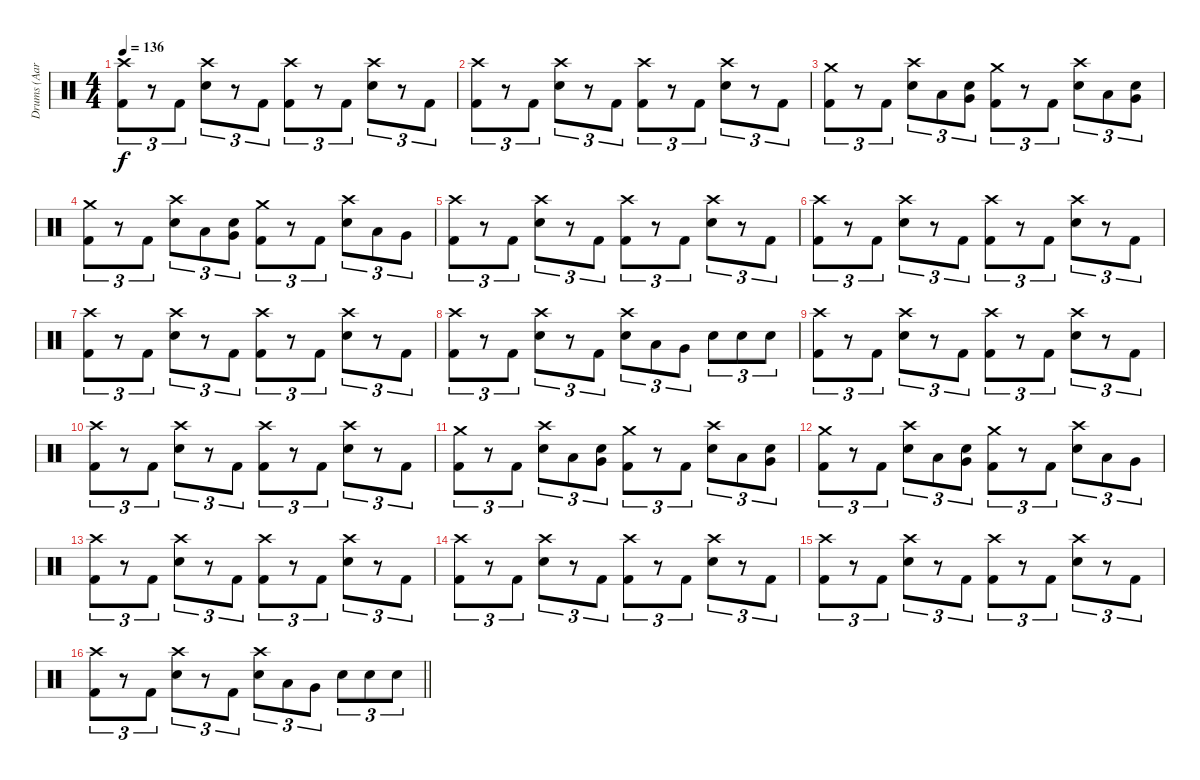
\track ("Drums (Aaron Solowoniuk)" "Drums (Aar") {instrument percussion}
\staff {score}
\articulation defaults
\ts (4 4)
\tempo 136
\clef neutral
\ks c
("Kick (hit) 2" "Crash high (hit)").8{tu (3 2) dy f} r.8{tu (3 2)} "Kick (hit) 2".8{tu (3 2)} ("Electric Snare (hit)" "Crash high (hit)").8{tu (3 2)} r.8{tu (3 2)} "Kick (hit) 2".8{tu (3 2)} ("Kick (hit) 2" "Crash high (hit)").8{tu (3 2)} r.8{tu (3 2)} "Kick (hit) 2".8{tu (3 2)} ("Electric Snare (hit)" "Crash high (hit)").8{tu (3 2)} r.8{tu (3 2)} "Kick (hit) 2".8{tu (3 2)} |
("Kick (hit) 2" "Crash high (hit)").8{tu (3 2)} r.8{tu (3 2)} "Kick (hit) 2".8{tu (3 2)} ("Electric Snare (hit)" "Crash high (hit)").8{tu (3 2)} r.8{tu (3 2)} "Kick (hit) 2".8{tu (3 2)} ("Kick (hit) 2" "Crash high (hit)").8{tu (3 2)} r.8{tu (3 2)} "Kick (hit) 2".8{tu (3 2)} ("Electric Snare (hit)" "Crash high (hit)").8{tu (3 2)} r.8{tu (3 2)} "Kick (hit) 2".8{tu (3 2)} |
("Crash medium (hit)" "Kick (hit) 2").8{tu (3 2)} r.8{tu (3 2)} "Kick (hit) 2".8{tu (3 2)} ("Crash high (hit)" "Electric Snare (hit)").8{tu (3 2)} "Low Tom (hit)".8{tu (3 2)} ("Electric Snare (hit)" "Very Low Tom (hit)").8{tu (3 2)} ("Crash medium (hit)" "Kick (hit) 2").8{tu (3 2)} r.8{tu (3 2)} "Kick (hit) 2".8{tu (3 2)} ("Crash high (hit)" "Electric Snare (hit)").8{tu (3 2)} "Low Tom (hit)".8{tu (3 2)} ("Electric Snare (hit)" "Very Low Tom (hit)").8{tu (3 2)} |
("Crash medium (hit)" "Kick (hit) 2").8{tu (3 2)} r.8{tu (3 2)} "Kick (hit) 2".8{tu (3 2)} ("Crash high (hit)" "Electric Snare (hit)").8{tu (3 2)} "Low Tom (hit)".8{tu (3 2)} ("Electric Snare (hit)" "Very Low Tom (hit)").8{tu (3 2)} ("Crash medium (hit)" "Kick (hit) 2").8{tu (3 2)} r.8{tu (3 2)} "Kick (hit) 2".8{tu (3 2)} ("Crash high (hit)" "Electric Snare (hit)").8{tu (3 2)} "Low Tom (hit)".8{tu (3 2)} "Very Low Tom (hit)".8{tu (3 2)} |
("Crash high (hit)" "Kick (hit) 2").8{tu (3 2)} r.8{tu (3 2)} "Kick (hit) 2".8{tu (3 2)} ("Crash high (hit)" "Electric Snare (hit)").8{tu (3 2)} r.8{tu (3 2)} "Kick (hit) 2".8{tu (3 2)} ("Crash high (hit)" "Kick (hit) 2").8{tu (3 2)} r.8{tu (3 2)} "Kick (hit) 2".8{tu (3 2)} ("Crash high (hit)" "Electric Snare (hit)").8{tu (3 2)} r.8{tu (3 2)} "Kick (hit) 2".8{tu (3 2)} |
("Crash high (hit)" "Kick (hit) 2").8{tu (3 2)} r.8{tu (3 2)} "Kick (hit) 2".8{tu (3 2)} ("Crash high (hit)" "Electric Snare (hit)").8{tu (3 2)} r.8{tu (3 2)} "Kick (hit) 2".8{tu (3 2)} ("Crash high (hit)" "Kick (hit) 2").8{tu (3 2)} r.8{tu (3 2)} "Kick (hit) 2".8{tu (3 2)} ("Crash high (hit)" "Electric Snare (hit)").8{tu (3 2)} r.8{tu (3 2)} "Kick (hit) 2".8{tu (3 2)} |
("Crash high (hit)" "Kick (hit) 2").8{tu (3 2)} r.8{tu (3 2)} "Kick (hit) 2".8{tu (3 2)} ("Crash high (hit)" "Electric Snare (hit)").8{tu (3 2)} r.8{tu (3 2)} "Kick (hit) 2".8{tu (3 2)} ("Crash high (hit)" "Kick (hit) 2").8{tu (3 2)} r.8{tu (3 2)} "Kick (hit) 2".8{tu (3 2)} ("Crash high (hit)" "Electric Snare (hit)").8{tu (3 2)} r.8{tu (3 2)} "Kick (hit) 2".8{tu (3 2)} |
("Kick (hit) 2" "Crash high (hit)").8{tu (3 2)} r.8{tu (3 2)} "Kick (hit) 2".8{tu (3 2)} ("Electric Snare (hit)" "Crash high (hit)").8{tu (3 2)} r.8{tu (3 2)} "Kick (hit) 2".8{tu (3 2)} ("Electric Snare (hit)" "Crash high (hit)").8{tu (3 2)} "Low Tom (hit)".8{tu (3 2)} "Very Low Tom (hit)".8{tu (3 2)} "Electric Snare (hit)".8{tu (3 2)} "Electric Snare (hit)".8{tu (3 2)} "Electric Snare (hit)".8{tu (3 2)} |
("Kick (hit) 2" "Crash high (hit)").8{tu (3 2)} r.8{tu (3 2)} "Kick (hit) 2".8{tu (3 2)} ("Electric Snare (hit)" "Crash high (hit)").8{tu (3 2)} r.8{tu (3 2)} "Kick (hit) 2".8{tu (3 2)} ("Kick (hit) 2" "Crash high (hit)").8{tu (3 2)} r.8{tu (3 2)} "Kick (hit) 2".8{tu (3 2)} ("Electric Snare (hit)" "Crash high (hit)").8{tu (3 2)} r.8{tu (3 2)} "Kick (hit) 2".8{tu (3 2)} |
("Kick (hit) 2" "Crash high (hit)").8{tu (3 2)} r.8{tu (3 2)} "Kick (hit) 2".8{tu (3 2)} ("Electric Snare (hit)" "Crash high (hit)").8{tu (3 2)} r.8{tu (3 2)} "Kick (hit) 2".8{tu (3 2)} ("Kick (hit) 2" "Crash high (hit)").8{tu (3 2)} r.8{tu (3 2)} "Kick (hit) 2".8{tu (3 2)} ("Electric Snare (hit)" "Crash high (hit)").8{tu (3 2)} r.8{tu (3 2)} "Kick (hit) 2".8{tu (3 2)} |
("Crash medium (hit)" "Kick (hit) 2").8{tu (3 2)} r.8{tu (3 2)} "Kick (hit) 2".8{tu (3 2)} ("Crash high (hit)" "Electric Snare (hit)").8{tu (3 2)} "Low Tom (hit)".8{tu (3 2)} ("Electric Snare (hit)" "Very Low Tom (hit)").8{tu (3 2)} ("Crash medium (hit)" "Kick (hit) 2").8{tu (3 2)} r.8{tu (3 2)} "Kick (hit) 2".8{tu (3 2)} ("Crash high (hit)" "Electric Snare (hit)").8{tu (3 2)} "Low Tom (hit)".8{tu (3 2)} ("Electric Snare (hit)" "Very Low Tom (hit)").8{tu (3 2)} |
("Crash medium (hit)" "Kick (hit) 2").8{tu (3 2)} r.8{tu (3 2)} "Kick (hit) 2".8{tu (3 2)} ("Crash high (hit)" "Electric Snare (hit)").8{tu (3 2)} "Low Tom (hit)".8{tu (3 2)} ("Electric Snare (hit)" "Very Low Tom (hit)").8{tu (3 2)} ("Crash medium (hit)" "Kick (hit) 2").8{tu (3 2)} r.8{tu (3 2)} "Kick (hit) 2".8{tu (3 2)} ("Crash high (hit)" "Electric Snare (hit)").8{tu (3 2)} "Low Tom (hit)".8{tu (3 2)} "Very Low Tom (hit)".8{tu (3 2)} |
("Crash high (hit)" "Kick (hit) 2").8{tu (3 2)} r.8{tu (3 2)} "Kick (hit) 2".8{tu (3 2)} ("Crash high (hit)" "Electric Snare (hit)").8{tu (3 2)} r.8{tu (3 2)} "Kick (hit) 2".8{tu (3 2)} ("Crash high (hit)" "Kick (hit) 2").8{tu (3 2)} r.8{tu (3 2)} "Kick (hit) 2".8{tu (3 2)} ("Crash high (hit)" "Electric Snare (hit)").8{tu (3 2)} r.8{tu (3 2)} "Kick (hit) 2".8{tu (3 2)} |
("Crash high (hit)" "Kick (hit) 2").8{tu (3 2)} r.8{tu (3 2)} "Kick (hit) 2".8{tu (3 2)} ("Crash high (hit)" "Electric Snare (hit)").8{tu (3 2)} r.8{tu (3 2)} "Kick (hit) 2".8{tu (3 2)} ("Crash high (hit)" "Kick (hit) 2").8{tu (3 2)} r.8{tu (3 2)} "Kick (hit) 2".8{tu (3 2)} ("Crash high (hit)" "Electric Snare (hit)").8{tu (3 2)} r.8{tu (3 2)} "Kick (hit) 2".8{tu (3 2)} |
("Crash high (hit)" "Kick (hit) 2").8{tu (3 2)} r.8{tu (3 2)} "Kick (hit) 2".8{tu (3 2)} ("Crash high (hit)" "Electric Snare (hit)").8{tu (3 2)} r.8{tu (3 2)} "Kick (hit) 2".8{tu (3 2)} ("Crash high (hit)" "Kick (hit) 2").8{tu (3 2)} r.8{tu (3 2)} "Kick (hit) 2".8{tu (3 2)} ("Crash high (hit)" "Electric Snare (hit)").8{tu (3 2)} r.8{tu (3 2)} "Kick (hit) 2".8{tu (3 2)} |
\barLineRight lightlight
("Kick (hit) 2" "Crash high (hit)").8{tu (3 2)} r.8{tu (3 2)} "Kick (hit) 2".8{tu (3 2)} ("Electric Snare (hit)" "Crash high (hit)").8{tu (3 2)} r.8{tu (3 2)} "Kick (hit) 2".8{tu (3 2)} ("Electric Snare (hit)" "Crash high (hit)").8{tu (3 2)} "Low Tom (hit)".8{tu (3 2)} "Very Low Tom (hit)".8{tu (3 2)} "Electric Snare (hit)".8{tu (3 2)} "Electric Snare (hit)".8{tu (3 2)} "Electric Snare (hit)".8{tu (3 2)}
